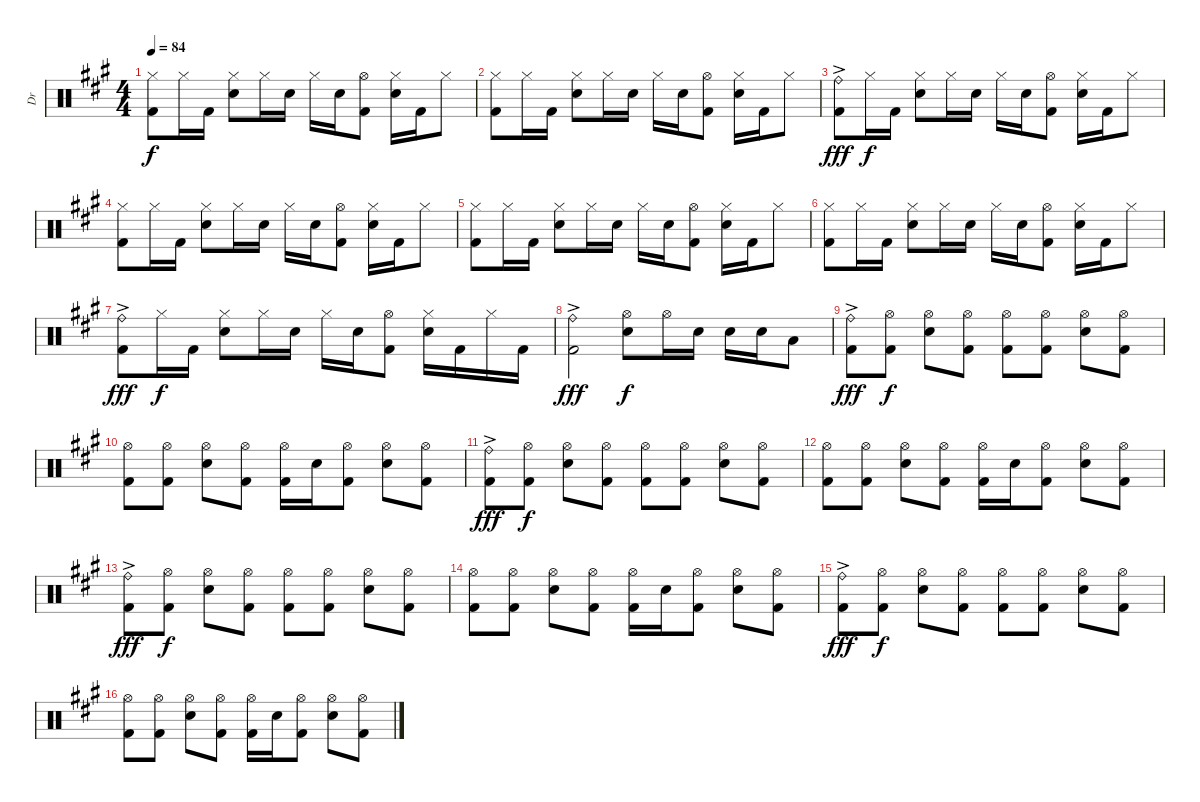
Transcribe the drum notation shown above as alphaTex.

\track ("Dr" "Dr") {instrument percussion}
\staff {score}
\articulation defaults
\ts (4 4)
\tempo 84
\clef neutral
\ks a
("Hi-Hat (closed)" "Kick (hit) 2").8{dy f} "Hi-Hat (closed)".16 "Kick (hit) 2".16 ("Hi-Hat (closed)" "Electric Snare (hit)").8 "Hi-Hat (closed)".16 "Electric Snare (hit)".16 "Hi-Hat (closed)".16 "Electric Snare (hit)".16 ("Hi-Hat (open)" "Kick (hit) 2").8 ("Hi-Hat (closed)" "Electric Snare (hit)").16 "Kick (hit) 2".16 "Hi-Hat (closed)".8 |
("Hi-Hat (closed)" "Kick (hit) 2").8 "Hi-Hat (closed)".16 "Kick (hit) 2".16 ("Hi-Hat (closed)" "Electric Snare (hit)").8 "Hi-Hat (closed)".16 "Electric Snare (hit)".16 "Hi-Hat (closed)".16 "Electric Snare (hit)".16 ("Hi-Hat (open)" "Kick (hit) 2").8 ("Hi-Hat (closed)" "Electric Snare (hit)").16 "Kick (hit) 2".16 "Hi-Hat (closed)".8 |
("Ride (bell)"{ac} "Kick (hit) 2"{ac}).8{dy fff} "Hi-Hat (closed)".16{dy f} "Kick (hit) 2".16 ("Hi-Hat (closed)" "Electric Snare (hit)").8 "Hi-Hat (closed)".16 "Electric Snare (hit)".16 "Hi-Hat (closed)".16 "Electric Snare (hit)".16 ("Hi-Hat (open)" "Kick (hit) 2").8 ("Hi-Hat (closed)" "Electric Snare (hit)").16 "Kick (hit) 2".16 "Hi-Hat (closed)".8 |
("Hi-Hat (closed)" "Kick (hit) 2").8 "Hi-Hat (closed)".16 "Kick (hit) 2".16 ("Hi-Hat (closed)" "Electric Snare (hit)").8 "Hi-Hat (closed)".16 "Electric Snare (hit)".16 "Hi-Hat (closed)".16 "Electric Snare (hit)".16 ("Hi-Hat (open)" "Kick (hit) 2").8 ("Hi-Hat (closed)" "Electric Snare (hit)").16 "Kick (hit) 2".16 "Hi-Hat (closed)".8 |
("Hi-Hat (closed)" "Kick (hit) 2").8 "Hi-Hat (closed)".16 "Kick (hit) 2".16 ("Hi-Hat (closed)" "Electric Snare (hit)").8 "Hi-Hat (closed)".16 "Electric Snare (hit)".16 "Hi-Hat (closed)".16 "Electric Snare (hit)".16 ("Hi-Hat (open)" "Kick (hit) 2").8 ("Hi-Hat (closed)" "Electric Snare (hit)").16 "Kick (hit) 2".16 "Hi-Hat (closed)".8 |
("Hi-Hat (closed)" "Kick (hit) 2").8 "Hi-Hat (closed)".16 "Kick (hit) 2".16 ("Hi-Hat (closed)" "Electric Snare (hit)").8 "Hi-Hat (closed)".16 "Electric Snare (hit)".16 "Hi-Hat (closed)".16 "Electric Snare (hit)".16 ("Hi-Hat (open)" "Kick (hit) 2").8 ("Hi-Hat (closed)" "Electric Snare (hit)").16 "Kick (hit) 2".16 "Hi-Hat (closed)".8 |
("Ride (bell)"{ac} "Kick (hit) 2"{ac}).8{dy fff} "Hi-Hat (closed)".16{dy f} "Kick (hit) 2".16 ("Hi-Hat (closed)" "Electric Snare (hit)").8 "Hi-Hat (closed)".16 "Electric Snare (hit)".16 "Hi-Hat (closed)".16 "Electric Snare (hit)".16 ("Hi-Hat (open)" "Kick (hit) 2").8 ("Hi-Hat (closed)" "Electric Snare (hit)").16 "Kick (hit) 2".16 "Hi-Hat (closed)".16 "Kick (hit) 2".16 |
("Ride (bell)"{ac} "Kick (hit) 2"{ac}).2{dy fff} ("Hi-Hat (open)" "Electric Snare (hit)").8{dy f} "Hi-Hat (open)".16 "Electric Snare (hit)".16 "Electric Snare (hit)".16 "Electric Snare (hit)".16 "Low Tom (hit)".8 |
("Ride (bell)"{ac} "Kick (hit) 2"{ac}).8{dy fff} ("Hi-Hat (open)" "Kick (hit) 2").8{dy f} ("Hi-Hat (open)" "Electric Snare (hit)").8 ("Hi-Hat (open)" "Kick (hit) 2").8 ("Hi-Hat (open)" "Kick (hit) 2").8 ("Hi-Hat (open)" "Kick (hit) 2").8 ("Hi-Hat (open)" "Electric Snare (hit)").8 ("Hi-Hat (open)" "Kick (hit) 2").8 |
("Hi-Hat (open)" "Kick (hit) 2").8 ("Hi-Hat (open)" "Kick (hit) 2").8 ("Hi-Hat (open)" "Electric Snare (hit)").8 ("Hi-Hat (open)" "Kick (hit) 2").8 ("Hi-Hat (open)" "Kick (hit) 2").16 "Electric Snare (hit)".16 ("Hi-Hat (open)" "Kick (hit) 2").8 ("Hi-Hat (open)" "Electric Snare (hit)").8 ("Hi-Hat (open)" "Kick (hit) 2").8 |
("Ride (bell)"{ac} "Kick (hit) 2"{ac}).8{dy fff} ("Hi-Hat (open)" "Kick (hit) 2").8{dy f} ("Hi-Hat (open)" "Electric Snare (hit)").8 ("Hi-Hat (open)" "Kick (hit) 2").8 ("Hi-Hat (open)" "Kick (hit) 2").8 ("Hi-Hat (open)" "Kick (hit) 2").8 ("Hi-Hat (open)" "Electric Snare (hit)").8 ("Hi-Hat (open)" "Kick (hit) 2").8 |
("Hi-Hat (open)" "Kick (hit) 2").8 ("Hi-Hat (open)" "Kick (hit) 2").8 ("Hi-Hat (open)" "Electric Snare (hit)").8 ("Hi-Hat (open)" "Kick (hit) 2").8 ("Hi-Hat (open)" "Kick (hit) 2").16 "Electric Snare (hit)".16 ("Hi-Hat (open)" "Kick (hit) 2").8 ("Hi-Hat (open)" "Electric Snare (hit)").8 ("Hi-Hat (open)" "Kick (hit) 2").8 |
("Ride (bell)"{ac} "Kick (hit) 2"{ac}).8{dy fff} ("Hi-Hat (open)" "Kick (hit) 2").8{dy f} ("Hi-Hat (open)" "Electric Snare (hit)").8 ("Hi-Hat (open)" "Kick (hit) 2").8 ("Hi-Hat (open)" "Kick (hit) 2").8 ("Hi-Hat (open)" "Kick (hit) 2").8 ("Hi-Hat (open)" "Electric Snare (hit)").8 ("Hi-Hat (open)" "Kick (hit) 2").8 |
("Hi-Hat (open)" "Kick (hit) 2").8 ("Hi-Hat (open)" "Kick (hit) 2").8 ("Hi-Hat (open)" "Electric Snare (hit)").8 ("Hi-Hat (open)" "Kick (hit) 2").8 ("Hi-Hat (open)" "Kick (hit) 2").16 "Electric Snare (hit)".16 ("Hi-Hat (open)" "Kick (hit) 2").8 ("Hi-Hat (open)" "Electric Snare (hit)").8 ("Hi-Hat (open)" "Kick (hit) 2").8 |
("Ride (bell)"{ac} "Kick (hit) 2"{ac}).8{dy fff} ("Hi-Hat (open)" "Kick (hit) 2").8{dy f} ("Hi-Hat (open)" "Electric Snare (hit)").8 ("Hi-Hat (open)" "Kick (hit) 2").8 ("Hi-Hat (open)" "Kick (hit) 2").8 ("Hi-Hat (open)" "Kick (hit) 2").8 ("Hi-Hat (open)" "Electric Snare (hit)").8 ("Hi-Hat (open)" "Kick (hit) 2").8 |
("Hi-Hat (open)" "Kick (hit) 2").8 ("Hi-Hat (open)" "Kick (hit) 2").8 ("Hi-Hat (open)" "Electric Snare (hit)").8 ("Hi-Hat (open)" "Kick (hit) 2").8 ("Hi-Hat (open)" "Kick (hit) 2").16 "Electric Snare (hit)".16 ("Hi-Hat (open)" "Kick (hit) 2").8 ("Hi-Hat (open)" "Electric Snare (hit)").8 ("Hi-Hat (open)" "Kick (hit) 2").8
